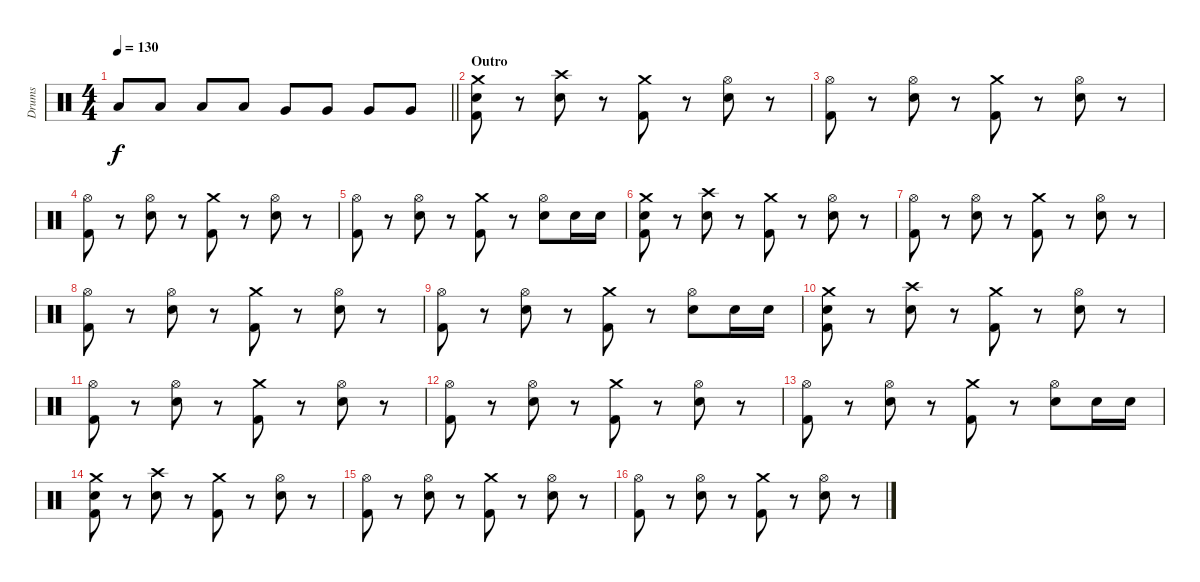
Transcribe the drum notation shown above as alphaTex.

\track ("Drums" "Drums") {instrument percussion}
\staff {score}
\articulation defaults
\ts (4 4)
\tempo 130
\clef neutral
\barLineRight lightlight
\ks c "Low Tom (hit)".8{dy f} "Low Tom (hit)".8 "Low Tom (hit)".8 "Low Tom (hit)".8 "Very Low Tom (hit)".8 "Very Low Tom (hit)".8 "Very Low Tom (hit)".8 "Very Low Tom (hit)".8
|
\section ("" "Outro")
("Crash medium (hit)" "Electric Snare (hit)" "Kick (hit) 2").8 r.8 ("Crash high (hit)" "Electric Snare (hit)").8 r.8 ("Crash medium (hit)" "Kick (hit) 2").8 r.8 ("Hi-Hat (open)" "Electric Snare (hit)").8 r.8 |
("Hi-Hat (open)" "Kick (hit) 2").8 r.8 ("Hi-Hat (open)" "Electric Snare (hit)").8 r.8 ("Crash medium (hit)" "Kick (hit) 2").8 r.8 ("Hi-Hat (open)" "Electric Snare (hit)").8 r.8 |
("Hi-Hat (open)" "Kick (hit) 2").8 r.8 ("Hi-Hat (open)" "Electric Snare (hit)").8 r.8 ("Crash medium (hit)" "Kick (hit) 2").8 r.8 ("Hi-Hat (open)" "Electric Snare (hit)").8 r.8 |
("Hi-Hat (open)" "Kick (hit) 2").8 r.8 ("Hi-Hat (open)" "Electric Snare (hit)").8 r.8 ("Crash medium (hit)" "Kick (hit) 2").8 r.8 ("Hi-Hat (open)" "Electric Snare (hit)").8 "Electric Snare (hit)".16 "Electric Snare (hit)".16 |
("Crash medium (hit)" "Electric Snare (hit)" "Kick (hit) 2").8 r.8 ("Crash high (hit)" "Electric Snare (hit)").8 r.8 ("Crash medium (hit)" "Kick (hit) 2").8 r.8 ("Hi-Hat (open)" "Electric Snare (hit)").8 r.8 |
("Hi-Hat (open)" "Kick (hit) 2").8 r.8 ("Hi-Hat (open)" "Electric Snare (hit)").8 r.8 ("Crash medium (hit)" "Kick (hit) 2").8 r.8 ("Hi-Hat (open)" "Electric Snare (hit)").8 r.8 |
("Hi-Hat (open)" "Kick (hit) 2").8 r.8 ("Hi-Hat (open)" "Electric Snare (hit)").8 r.8 ("Crash medium (hit)" "Kick (hit) 2").8 r.8 ("Hi-Hat (open)" "Electric Snare (hit)").8 r.8 |
("Hi-Hat (open)" "Kick (hit) 2").8 r.8 ("Hi-Hat (open)" "Electric Snare (hit)").8 r.8 ("Crash medium (hit)" "Kick (hit) 2").8 r.8 ("Hi-Hat (open)" "Electric Snare (hit)").8 "Electric Snare (hit)".16 "Electric Snare (hit)".16 |
("Crash medium (hit)" "Electric Snare (hit)" "Kick (hit) 2").8 r.8 ("Crash high (hit)" "Electric Snare (hit)").8 r.8 ("Crash medium (hit)" "Kick (hit) 2").8 r.8 ("Hi-Hat (open)" "Electric Snare (hit)").8 r.8 |
("Hi-Hat (open)" "Kick (hit) 2").8 r.8 ("Hi-Hat (open)" "Electric Snare (hit)").8 r.8 ("Crash medium (hit)" "Kick (hit) 2").8 r.8 ("Hi-Hat (open)" "Electric Snare (hit)").8 r.8 |
("Hi-Hat (open)" "Kick (hit) 2").8 r.8 ("Hi-Hat (open)" "Electric Snare (hit)").8 r.8 ("Crash medium (hit)" "Kick (hit) 2").8 r.8 ("Hi-Hat (open)" "Electric Snare (hit)").8 r.8 |
("Hi-Hat (open)" "Kick (hit) 2").8 r.8 ("Hi-Hat (open)" "Electric Snare (hit)").8 r.8 ("Crash medium (hit)" "Kick (hit) 2").8 r.8 ("Hi-Hat (open)" "Electric Snare (hit)").8 "Electric Snare (hit)".16 "Electric Snare (hit)".16 |
("Crash medium (hit)" "Electric Snare (hit)" "Kick (hit) 2").8 r.8 ("Crash high (hit)" "Electric Snare (hit)").8 r.8 ("Crash medium (hit)" "Kick (hit) 2").8 r.8 ("Hi-Hat (open)" "Electric Snare (hit)").8 r.8 |
("Hi-Hat (open)" "Kick (hit) 2").8 r.8 ("Hi-Hat (open)" "Electric Snare (hit)").8 r.8 ("Crash medium (hit)" "Kick (hit) 2").8 r.8 ("Hi-Hat (open)" "Electric Snare (hit)").8 r.8 |
("Hi-Hat (open)" "Kick (hit) 2").8 r.8 ("Hi-Hat (open)" "Electric Snare (hit)").8 r.8 ("Crash medium (hit)" "Kick (hit) 2").8 r.8 ("Hi-Hat (open)" "Electric Snare (hit)").8 r.8
